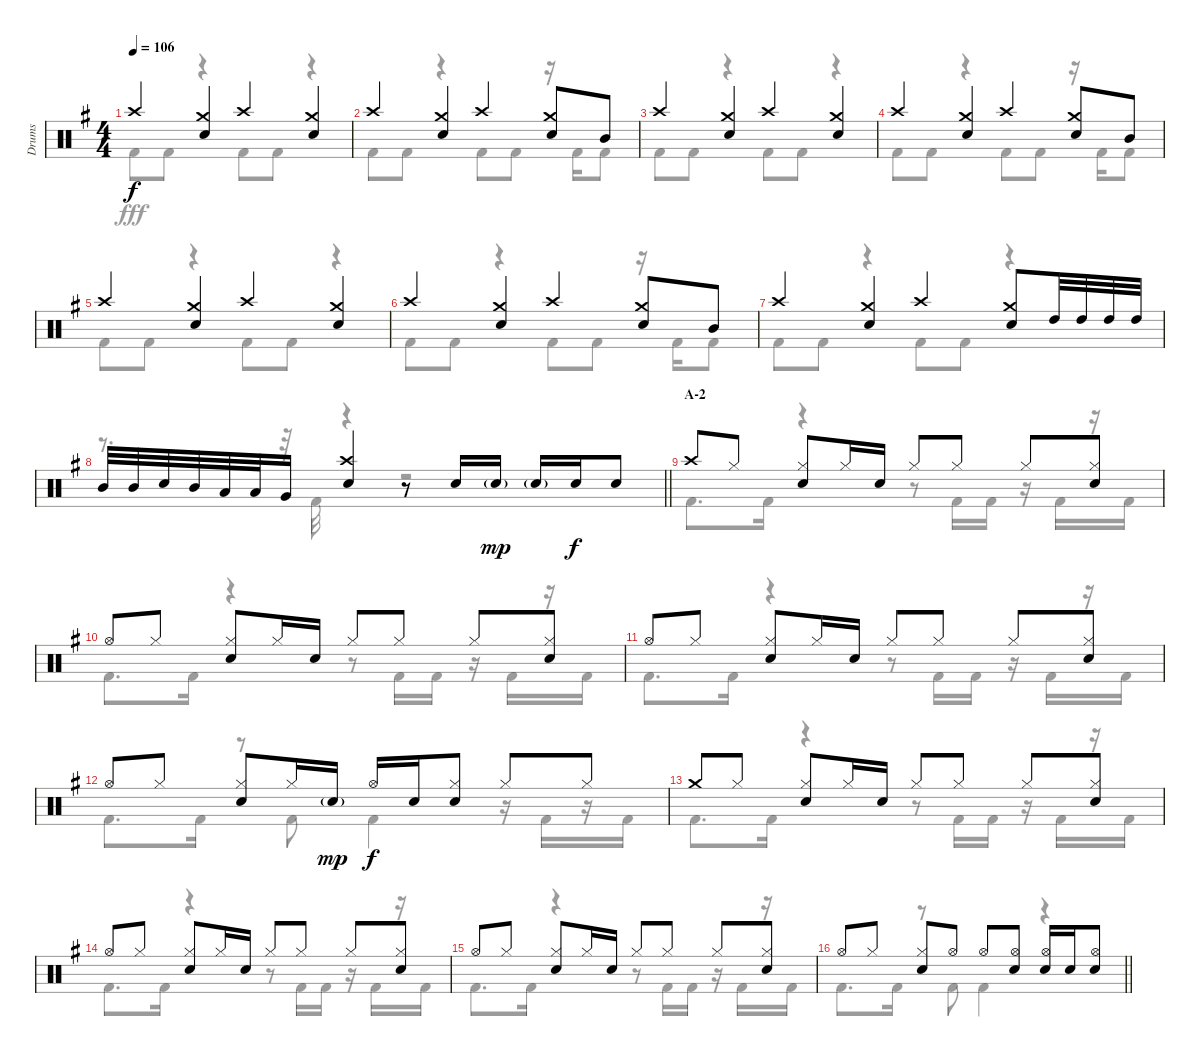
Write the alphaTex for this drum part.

\track ("Drums" "Drums") {instrument percussion}
\staff {score}
\articulation defaults
\voice
\ts (4 4)
\tempo 106
\clef neutral
\ks g "Crash high (hit)".4{dy f}
("Crash medium (hit)" "Snare (hit) 2").4 "Crash high (hit)".4 ("Crash medium (hit)" "Snare (hit) 2").4 |
"Crash high (hit)".4 ("Crash medium (hit)" "Snare (hit) 2").4 "Crash high (hit)".4 ("Crash medium (hit)" "Snare (hit) 2").8 "Mid Tom (hit)".8 |
"Crash high (hit)".4 ("Crash medium (hit)" "Snare (hit) 2").4 "Crash high (hit)".4 ("Crash medium (hit)" "Snare (hit) 2").4 |
"Crash high (hit)".4 ("Crash medium (hit)" "Snare (hit) 2").4 "Crash high (hit)".4 ("Crash medium (hit)" "Snare (hit) 2").8 "Mid Tom (hit)".8 |
"Crash high (hit)".4 ("Crash medium (hit)" "Snare (hit) 2").4 "Crash high (hit)".4 ("Crash medium (hit)" "Snare (hit) 2").4 |
"Crash high (hit)".4 ("Crash medium (hit)" "Snare (hit) 2").4 "Crash high (hit)".4 ("Crash medium (hit)" "Snare (hit) 2").8 "Mid Tom (hit)".8 |
"Crash high (hit)".4 ("Crash medium (hit)" "Snare (hit) 2").4 "Crash high (hit)".4 ("Crash medium (hit)" "Snare (hit) 2").8 "High Tom (hit)".32 "High Tom (hit)".32 "High Tom (hit)".32 "High Tom (hit)".32 |
\barLineRight lightlight "Mid Tom (hit)".32 "Mid Tom (hit)".32 "Snare (hit) 2".32 "Mid Tom (hit)".32 "Low Tom (hit)".32 "Low Tom (hit)".32 "Very Low Tom (hit)".16
("Crash high (hit)" "Snare (hit) 2").4 r.8 "Snare (hit) 2".16 "Snare (hit) 2"{g}.16{dy mp} "Snare (hit) 2"{g}.16 "Snare (hit) 2".16{dy f} "Snare (hit) 2".8 |
\section ("" "A-2")
"Crash high (hit)".8 "Hi-Hat (closed)".8 ("Hi-Hat (closed)" "Snare (hit) 2").8 "Hi-Hat (closed)".16 "Snare (hit) 2".16 "Hi-Hat (closed)".8 "Hi-Hat (closed)".8 "Hi-Hat (closed)".8 ("Hi-Hat (closed)" "Snare (hit) 2").8 |
"Hi-Hat (open)".8 "Hi-Hat (closed)".8 ("Hi-Hat (closed)" "Snare (hit) 2").8 "Hi-Hat (closed)".16 "Snare (hit) 2".16 "Hi-Hat (closed)".8 "Hi-Hat (closed)".8 "Hi-Hat (closed)".8 ("Hi-Hat (closed)" "Snare (hit) 2").8 |
"Hi-Hat (open)".8 "Hi-Hat (closed)".8 ("Hi-Hat (closed)" "Snare (hit) 2").8 "Hi-Hat (closed)".16 "Snare (hit) 2".16 "Hi-Hat (closed)".8 "Hi-Hat (closed)".8 "Hi-Hat (closed)".8 ("Hi-Hat (closed)" "Snare (hit) 2").8 |
"Hi-Hat (open)".8 "Hi-Hat (closed)".8 ("Hi-Hat (closed)" "Snare (hit) 2").8 "Hi-Hat (closed)".16 "Snare (hit) 2"{g}.16{dy mp} "Hi-Hat (open)".16{dy f} "Snare (hit) 2".16 ("Hi-Hat (closed)" "Snare (hit) 2").8 "Hi-Hat (closed)".8 "Hi-Hat (closed)".8 |
"Crash medium (hit)".8 "Hi-Hat (closed)".8 ("Hi-Hat (closed)" "Snare (hit) 2").8 "Hi-Hat (closed)".16 "Snare (hit) 2".16 "Hi-Hat (closed)".8 "Hi-Hat (closed)".8 "Hi-Hat (closed)".8 ("Hi-Hat (closed)" "Snare (hit) 2").8 |
"Hi-Hat (open)".8 "Hi-Hat (closed)".8 ("Hi-Hat (closed)" "Snare (hit) 2").8 "Hi-Hat (closed)".16 "Snare (hit) 2".16 "Hi-Hat (closed)".8 "Hi-Hat (closed)".8 "Hi-Hat (closed)".8 ("Hi-Hat (closed)" "Snare (hit) 2").8 |
"Hi-Hat (open)".8 "Hi-Hat (closed)".8 ("Hi-Hat (closed)" "Snare (hit) 2").8 "Hi-Hat (closed)".16 "Snare (hit) 2".16 "Hi-Hat (closed)".8 "Hi-Hat (closed)".8 "Hi-Hat (closed)".8 ("Hi-Hat (closed)" "Snare (hit) 2").8 |
\barLineRight lightlight "Hi-Hat (open)".8 "Hi-Hat (closed)".8
("Hi-Hat (closed)" "Snare (hit) 2").8 "Hi-Hat (open)".8 "Hi-Hat (open)".8 ("Hi-Hat (open)" "Snare (hit) 2").8 ("Hi-Hat (open)" "Snare (hit) 2").16 "Snare (hit) 2".16 ("Hi-Hat (open)" "Snare (hit) 2").8
\voice
\clef neutral
\ottava regular
\simile none
\ks g "Kick (hit) 2".8{dy fff} "Kick (hit) 2".8
r.4 "Kick (hit) 2".8 "Kick (hit) 2".8 r.4 |
"Kick (hit) 2".8 "Kick (hit) 2".8 r.4 "Kick (hit) 2".8 "Kick (hit) 2".8 r.16 "Kick (hit) 2".16 "Kick (hit) 2".8 |
"Kick (hit) 2".8 "Kick (hit) 2".8 r.4 "Kick (hit) 2".8 "Kick (hit) 2".8 r.4 |
"Kick (hit) 2".8 "Kick (hit) 2".8 r.4 "Kick (hit) 2".8 "Kick (hit) 2".8 r.16 "Kick (hit) 2".16 "Kick (hit) 2".8 |
"Kick (hit) 2".8 "Kick (hit) 2".8 r.4 "Kick (hit) 2".8 "Kick (hit) 2".8 r.4 |
"Kick (hit) 2".8 "Kick (hit) 2".8 r.4 "Kick (hit) 2".8 "Kick (hit) 2".8 r.16 "Kick (hit) 2".16 "Kick (hit) 2".8 |
"Kick (hit) 2".8 "Kick (hit) 2".8 r.4 "Kick (hit) 2".8 "Kick (hit) 2".8 r.4 |
\barLineRight lightlight
r.8{d} r.32 "Kick (hit) 2".32 r.4 r.2 |
"Kick (hit) 2".8{d} "Kick (hit) 2".16 r.4 r.8 "Kick (hit) 2".16 "Kick (hit) 2".16 r.16 "Kick (hit) 2".16 r.16 "Kick (hit) 2".16 |
"Kick (hit) 2".8{d} "Kick (hit) 2".16 r.4 r.8 "Kick (hit) 2".16 "Kick (hit) 2".16 r.16 "Kick (hit) 2".16 r.16 "Kick (hit) 2".16 |
"Kick (hit) 2".8{d} "Kick (hit) 2".16 r.4 r.8 "Kick (hit) 2".16 "Kick (hit) 2".16 r.16 "Kick (hit) 2".16 r.16 "Kick (hit) 2".16 |
"Kick (hit) 2".8{d} "Kick (hit) 2".16 r.8 "Kick (hit) 2".8 "Kick (hit) 2".4 r.16 "Kick (hit) 2".16 r.16 "Kick (hit) 2".16 |
"Kick (hit) 2".8{d} "Kick (hit) 2".16 r.4 r.8 "Kick (hit) 2".16 "Kick (hit) 2".16 r.16 "Kick (hit) 2".16 r.16 "Kick (hit) 2".16 |
"Kick (hit) 2".8{d} "Kick (hit) 2".16 r.4 r.8 "Kick (hit) 2".16 "Kick (hit) 2".16 r.16 "Kick (hit) 2".16 r.16 "Kick (hit) 2".16 |
"Kick (hit) 2".8{d} "Kick (hit) 2".16 r.4 r.8 "Kick (hit) 2".16 "Kick (hit) 2".16 r.16 "Kick (hit) 2".16 r.16 "Kick (hit) 2".16 |
\barLineRight lightlight "Kick (hit) 2".8{d} "Kick (hit) 2".16
r.8 "Kick (hit) 2".8 "Kick (hit) 2".4 r.4
